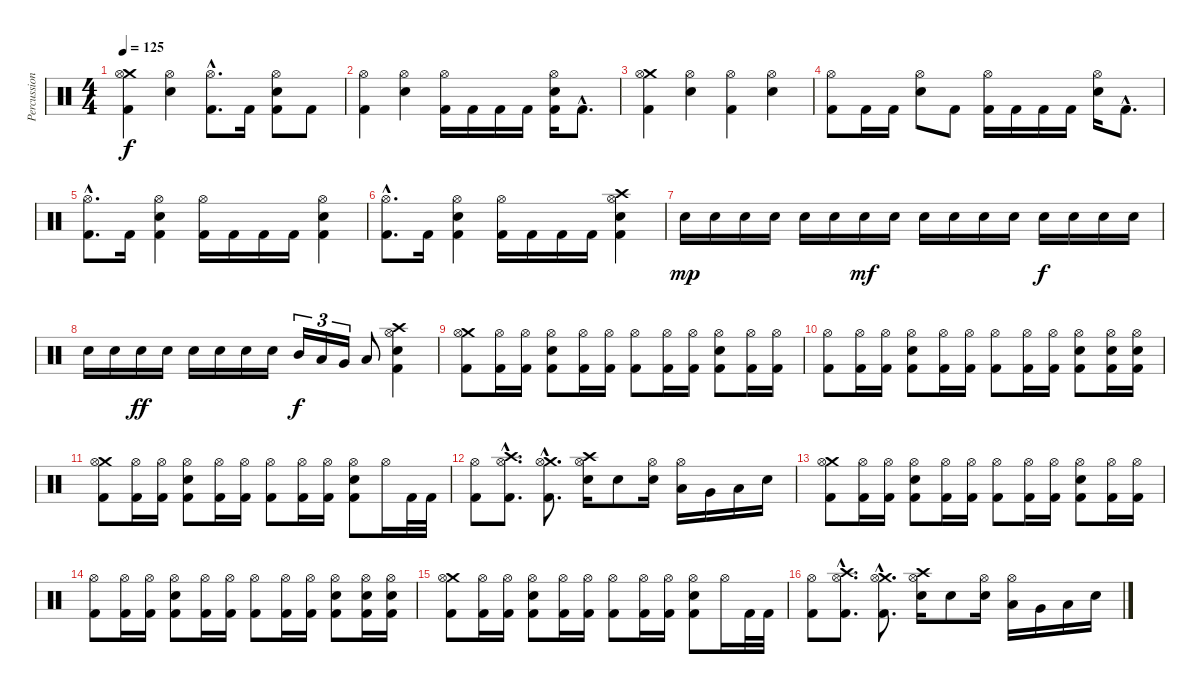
\track ("Percussion" "Percussion") {instrument percussion}
\staff {score}
\articulation defaults
\ts (4 4)
\tempo 125
\clef neutral
\ks c
("Crash medium (hit)" "Hi-Hat (open)" "Kick (hit) 2").4{dy f} ("Hi-Hat (open)" "Electric Snare (hit)").4 ("Hi-Hat (open)"{hac} "Kick (hit) 2"{hac}).8{d} "Kick (hit) 2".16 ("Hi-Hat (open)" "Electric Snare (hit)" "Kick (hit) 2").8 "Kick (hit) 2".8 |
("Hi-Hat (open)" "Kick (hit) 2").4 ("Hi-Hat (open)" "Electric Snare (hit)").4 ("Hi-Hat (open)" "Kick (hit) 2").16 "Kick (hit) 2".16 "Kick (hit) 2".16 "Kick (hit) 2".16 ("Hi-Hat (open)" "Electric Snare (hit)" "Kick (hit) 2").16 "Kick (hit) 2"{hac}.8{d} |
("Crash medium (hit)" "Hi-Hat (open)" "Kick (hit) 2").4 ("Hi-Hat (open)" "Electric Snare (hit)").4 ("Hi-Hat (open)" "Kick (hit) 2").4 ("Hi-Hat (open)" "Electric Snare (hit)").4 |
("Hi-Hat (open)" "Kick (hit) 2").8 "Kick (hit) 2".16 "Kick (hit) 2".16 ("Hi-Hat (open)" "Electric Snare (hit)").8 "Kick (hit) 2".8 ("Hi-Hat (open)" "Kick (hit) 2").16 "Kick (hit) 2".16 "Kick (hit) 2".16 "Kick (hit) 2".16 ("Hi-Hat (open)" "Electric Snare (hit)").16 "Kick (hit) 2"{hac}.8{d} |
("Hi-Hat (open)"{hac} "Kick (hit) 2"{hac}).8{d} "Kick (hit) 2".16 ("Hi-Hat (open)" "Electric Snare (hit)" "Kick (hit) 2").4 ("Hi-Hat (open)" "Kick (hit) 2").16 "Kick (hit) 2".16 "Kick (hit) 2".16 "Kick (hit) 2".16 ("Hi-Hat (open)" "Electric Snare (hit)" "Kick (hit) 2").4 |
("Hi-Hat (open)"{hac} "Kick (hit) 2"{hac}).8{d} "Kick (hit) 2".16 ("Hi-Hat (open)" "Electric Snare (hit)" "Kick (hit) 2").4 ("Hi-Hat (open)" "Kick (hit) 2").16 "Kick (hit) 2".16 "Kick (hit) 2".16 "Kick (hit) 2".16 ("Crash high (hit)" "Hi-Hat (open)" "Electric Snare (hit)" "Kick (hit) 2").4 |
"Electric Snare (hit)".16{dy mp} "Electric Snare (hit)".16 "Electric Snare (hit)".16 "Electric Snare (hit)".16 "Electric Snare (hit)".16 "Electric Snare (hit)".16 "Electric Snare (hit)".16{dy mf} "Electric Snare (hit)".16 "Electric Snare (hit)".16 "Electric Snare (hit)".16 "Electric Snare (hit)".16 "Electric Snare (hit)".16 "Electric Snare (hit)".16{dy f} "Electric Snare (hit)".16 "Electric Snare (hit)".16 "Electric Snare (hit)".16 |
"Electric Snare (hit)".16 "Electric Snare (hit)".16 "Electric Snare (hit)".16{dy ff} "Electric Snare (hit)".16 "Electric Snare (hit)".16 "Electric Snare (hit)".16 "Electric Snare (hit)".16 "Electric Snare (hit)".16 "Mid Tom (hit)".16{tu (3 2) dy f} "Low Tom (hit)".16{tu (3 2)} "Very Low Tom (hit)".16{tu (3 2)} "Low Floor Tom (hit)".8 ("Crash high (hit)" "Hi-Hat (open)" "Electric Snare (hit)" "Kick (hit) 2").4 |
("Crash medium (hit)" "Hi-Hat (open)" "Kick (hit) 2").8 ("Hi-Hat (open)" "Kick (hit) 2").16 ("Hi-Hat (open)" "Kick (hit) 2").16 ("Hi-Hat (open)" "Electric Snare (hit)" "Kick (hit) 2").8 ("Hi-Hat (open)" "Kick (hit) 2").16 ("Hi-Hat (open)" "Kick (hit) 2").16 ("Hi-Hat (open)" "Kick (hit) 2").8 ("Hi-Hat (open)" "Kick (hit) 2").16 ("Hi-Hat (open)" "Kick (hit) 2").16 ("Hi-Hat (open)" "Electric Snare (hit)" "Kick (hit) 2").8 ("Hi-Hat (open)" "Kick (hit) 2").16 ("Hi-Hat (open)" "Kick (hit) 2").16 |
("Hi-Hat (open)" "Kick (hit) 2").8 ("Hi-Hat (open)" "Kick (hit) 2").16 ("Hi-Hat (open)" "Kick (hit) 2").16 ("Hi-Hat (open)" "Electric Snare (hit)" "Kick (hit) 2").8 ("Hi-Hat (open)" "Kick (hit) 2").16 ("Hi-Hat (open)" "Kick (hit) 2").16 ("Hi-Hat (open)" "Kick (hit) 2").8 ("Hi-Hat (open)" "Kick (hit) 2").16 ("Hi-Hat (open)" "Kick (hit) 2").16 ("Hi-Hat (open)" "Electric Snare (hit)" "Kick (hit) 2").8 ("Hi-Hat (open)" "Electric Snare (hit)" "Kick (hit) 2").16 ("Hi-Hat (open)" "Electric Snare (hit)" "Kick (hit) 2").16 |
("Crash medium (hit)" "Hi-Hat (open)" "Kick (hit) 2").8 ("Hi-Hat (open)" "Kick (hit) 2").16 ("Hi-Hat (open)" "Kick (hit) 2").16 ("Hi-Hat (open)" "Electric Snare (hit)" "Kick (hit) 2").8 ("Hi-Hat (open)" "Kick (hit) 2").16 ("Hi-Hat (open)" "Kick (hit) 2").16 ("Hi-Hat (open)" "Kick (hit) 2").8 ("Hi-Hat (open)" "Kick (hit) 2").16 ("Hi-Hat (open)" "Kick (hit) 2").16 ("Hi-Hat (open)" "Electric Snare (hit)" "Kick (hit) 2").8 "Hi-Hat (open)".16 "Kick (hit) 2".32 "Kick (hit) 2".32 |
("Hi-Hat (open)" "Kick (hit) 2").8 ("Crash high (hit)"{hac} "Hi-Hat (open)"{hac} "Kick (hit) 2"{hac}).8{d} ("Crash medium (hit)"{hac} "Hi-Hat (open)"{hac} "Kick (hit) 2"{hac}).8{d} ("Crash high (hit)" "Hi-Hat (open)" "Electric Snare (hit)").16 "Electric Snare (hit)".8 ("Hi-Hat (open)" "Electric Snare (hit)").16 ("Hi-Hat (open)" "Low Tom (hit)").16 "Very Low Tom (hit)".16 "Low Floor Tom (hit)".16 "Electric Snare (hit)".16 |
("Crash medium (hit)" "Hi-Hat (open)" "Kick (hit) 2").8 ("Hi-Hat (open)" "Kick (hit) 2").16 ("Hi-Hat (open)" "Kick (hit) 2").16 ("Hi-Hat (open)" "Electric Snare (hit)" "Kick (hit) 2").8 ("Hi-Hat (open)" "Kick (hit) 2").16 ("Hi-Hat (open)" "Kick (hit) 2").16 ("Hi-Hat (open)" "Kick (hit) 2").8 ("Hi-Hat (open)" "Kick (hit) 2").16 ("Hi-Hat (open)" "Kick (hit) 2").16 ("Hi-Hat (open)" "Electric Snare (hit)" "Kick (hit) 2").8 ("Hi-Hat (open)" "Kick (hit) 2").16 ("Hi-Hat (open)" "Kick (hit) 2").16 |
("Hi-Hat (open)" "Kick (hit) 2").8 ("Hi-Hat (open)" "Kick (hit) 2").16 ("Hi-Hat (open)" "Kick (hit) 2").16 ("Hi-Hat (open)" "Electric Snare (hit)" "Kick (hit) 2").8 ("Hi-Hat (open)" "Kick (hit) 2").16 ("Hi-Hat (open)" "Kick (hit) 2").16 ("Hi-Hat (open)" "Kick (hit) 2").8 ("Hi-Hat (open)" "Kick (hit) 2").16 ("Hi-Hat (open)" "Kick (hit) 2").16 ("Hi-Hat (open)" "Electric Snare (hit)" "Kick (hit) 2").8 ("Hi-Hat (open)" "Electric Snare (hit)" "Kick (hit) 2").16 ("Hi-Hat (open)" "Electric Snare (hit)" "Kick (hit) 2").16 |
("Crash medium (hit)" "Hi-Hat (open)" "Kick (hit) 2").8 ("Hi-Hat (open)" "Kick (hit) 2").16 ("Hi-Hat (open)" "Kick (hit) 2").16 ("Hi-Hat (open)" "Electric Snare (hit)" "Kick (hit) 2").8 ("Hi-Hat (open)" "Kick (hit) 2").16 ("Hi-Hat (open)" "Kick (hit) 2").16 ("Hi-Hat (open)" "Kick (hit) 2").8 ("Hi-Hat (open)" "Kick (hit) 2").16 ("Hi-Hat (open)" "Kick (hit) 2").16 ("Hi-Hat (open)" "Electric Snare (hit)" "Kick (hit) 2").8 "Hi-Hat (open)".16 "Kick (hit) 2".32 "Kick (hit) 2".32 |
("Hi-Hat (open)" "Kick (hit) 2").8 ("Crash high (hit)"{hac} "Hi-Hat (open)"{hac} "Kick (hit) 2"{hac}).8{d} ("Crash medium (hit)"{hac} "Hi-Hat (open)"{hac} "Kick (hit) 2"{hac}).8{d} ("Crash high (hit)" "Hi-Hat (open)" "Electric Snare (hit)").16 "Electric Snare (hit)".8 ("Hi-Hat (open)" "Electric Snare (hit)").16 ("Hi-Hat (open)" "Low Tom (hit)").16 "Very Low Tom (hit)".16 "Low Floor Tom (hit)".16 "Electric Snare (hit)".16
